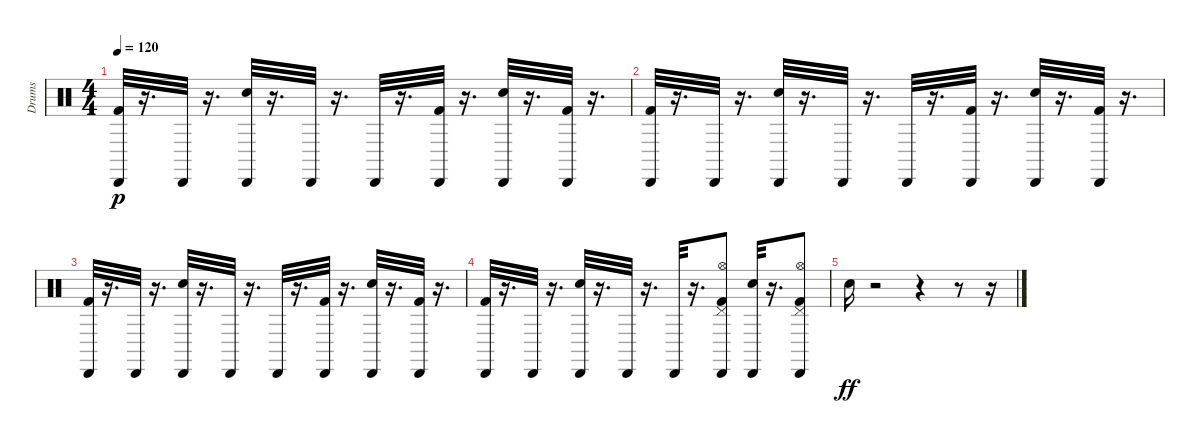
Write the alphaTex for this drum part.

\track ("Drums" "Drums") {instrument percussion}
\staff {score}
\articulation defaults
\ts (4 4)
\tempo 120
\clef neutral
\ks c
("Cabasa (hit)" "Kick (hit) 2").32{dy p} r.16{d} "Cabasa (hit)".32 r.16{d} ("Cabasa (hit)" "Electric Snare (hit)").32 r.16{d} "Cabasa (hit)".32 r.16{d} "Cabasa (hit)".32 r.16{d} ("Cabasa (hit)" "Kick (hit) 2").32 r.16{d} ("Cabasa (hit)" "Electric Snare (hit)").32 r.16{d} ("Cabasa (hit)" "Kick (hit) 2").32 r.16{d} |
("Cabasa (hit)" "Kick (hit) 2").32 r.16{d} "Cabasa (hit)".32 r.16{d} ("Cabasa (hit)" "Electric Snare (hit)").32 r.16{d} "Cabasa (hit)".32 r.16{d} "Cabasa (hit)".32 r.16{d} ("Cabasa (hit)" "Kick (hit) 2").32 r.16{d} ("Cabasa (hit)" "Electric Snare (hit)").32 r.16{d} ("Cabasa (hit)" "Kick (hit) 2").32 r.16{d} |
("Cabasa (hit)" "Kick (hit) 2").32 r.16{d} "Cabasa (hit)".32 r.16{d} ("Cabasa (hit)" "Electric Snare (hit)").32 r.16{d} "Cabasa (hit)".32 r.16{d} "Cabasa (hit)".32 r.16{d} ("Cabasa (hit)" "Kick (hit) 2").32 r.16{d} ("Cabasa (hit)" "Electric Snare (hit)").32 r.16{d} ("Cabasa (hit)" "Kick (hit) 2").32 r.16{d} |
("Cabasa (hit)" "Kick (hit) 2").32 r.16{d} "Cabasa (hit)".32 r.16{d} ("Cabasa (hit)" "Electric Snare (hit)").32 r.16{d} "Cabasa (hit)".32 r.16{d} "Cabasa (hit)".32 r.16{d} ("Pedal Hi-Hat (hit)" "Hi-Hat (open)" "Cabasa (hit)" "Kick (hit) 2").8 ("Cabasa (hit)" "Electric Snare (hit)").32 r.16{d} ("Pedal Hi-Hat (hit)" "Hi-Hat (open)" "Cabasa (hit)" "Kick (hit) 2").8 |
"Electric Snare (hit)".16{dy ff} r.2 r.4 r.8 r.16
